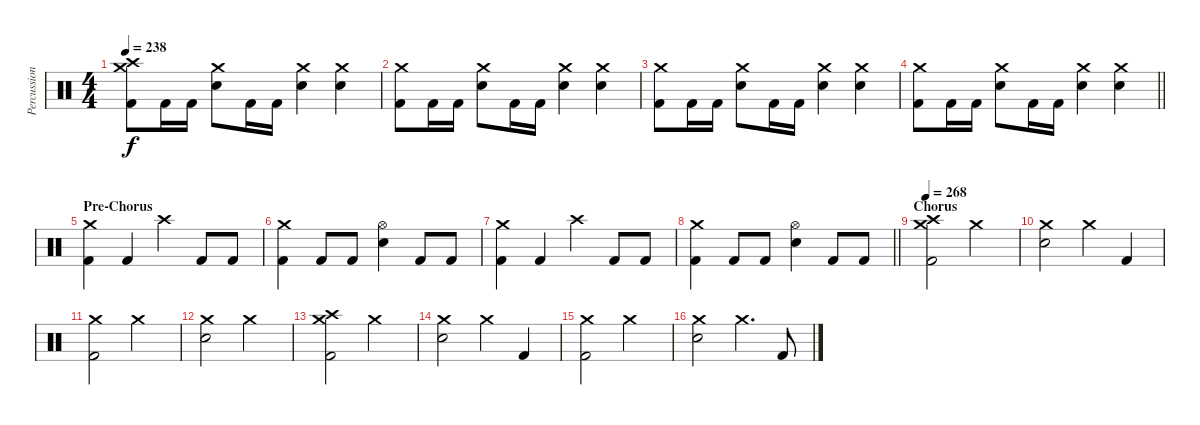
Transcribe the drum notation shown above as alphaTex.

\track ("Percussion" "Percussion") {instrument percussion}
\staff {score}
\articulation defaults
\ts (4 4)
\tempo 238
\clef neutral
\ks c
("Crash medium (hit)" "Crash high (hit)" "Kick (hit) 2").8{dy f} "Kick (hit) 2".16 "Kick (hit) 2".16 ("Crash medium (hit)" "Electric Snare (hit)").8 "Kick (hit) 2".16 "Kick (hit) 2".16 ("Crash medium (hit)" "Electric Snare (hit)").4 ("Crash medium (hit)" "Electric Snare (hit)").4 |
("Crash medium (hit)" "Kick (hit) 2").8 "Kick (hit) 2".16 "Kick (hit) 2".16 ("Crash medium (hit)" "Electric Snare (hit)").8 "Kick (hit) 2".16 "Kick (hit) 2".16 ("Crash medium (hit)" "Electric Snare (hit)").4 ("Crash medium (hit)" "Electric Snare (hit)").4 |
("Crash medium (hit)" "Kick (hit) 2").8 "Kick (hit) 2".16 "Kick (hit) 2".16 ("Crash medium (hit)" "Electric Snare (hit)").8 "Kick (hit) 2".16 "Kick (hit) 2".16 ("Crash medium (hit)" "Electric Snare (hit)").4 ("Crash medium (hit)" "Electric Snare (hit)").4 |
\barLineRight lightlight
("Crash medium (hit)" "Kick (hit) 2").8 "Kick (hit) 2".16 "Kick (hit) 2".16 ("Crash medium (hit)" "Electric Snare (hit)").8 "Kick (hit) 2".16 "Kick (hit) 2".16 ("Crash medium (hit)" "Electric Snare (hit)").4 ("Crash medium (hit)" "Electric Snare (hit)").4 |
\section ("" "Pre-Chorus")
("Crash medium (hit)" "Kick (hit) 2").4 "Kick (hit) 2".4 "Crash high (hit)".4 "Kick (hit) 2".8 "Kick (hit) 2".8 |
("Crash medium (hit)" "Kick (hit) 2").4 "Kick (hit) 2".8 "Kick (hit) 2".8 ("Hi-Hat (open)" "Electric Snare (hit)").4 "Kick (hit) 2".8 "Kick (hit) 2".8 |
("Crash medium (hit)" "Kick (hit) 2").4 "Kick (hit) 2".4 "Crash high (hit)".4 "Kick (hit) 2".8 "Kick (hit) 2".8 |
\barLineRight lightlight
("Crash medium (hit)" "Kick (hit) 2").4 "Kick (hit) 2".8 "Kick (hit) 2".8 ("Hi-Hat (open)" "Electric Snare (hit)").4 "Kick (hit) 2".8 "Kick (hit) 2".8 |
\section ("" "Chorus")
\tempo 268
("Crash medium (hit)" "Crash high (hit)" "Kick (hit) 2").2 "Crash medium (hit)".2 |
("Crash medium (hit)" "Electric Snare (hit)").2 "Crash medium (hit)".4 "Kick (hit) 2".4 |
("Crash medium (hit)" "Kick (hit) 2").2 "Crash medium (hit)".2 |
("Crash medium (hit)" "Electric Snare (hit)").2 "Crash medium (hit)".2 |
("Crash medium (hit)" "Crash high (hit)" "Kick (hit) 2").2 "Crash medium (hit)".2 |
("Crash medium (hit)" "Electric Snare (hit)").2 "Crash medium (hit)".4 "Kick (hit) 2".4 |
("Crash medium (hit)" "Kick (hit) 2").2 "Crash medium (hit)".2 |
("Crash medium (hit)" "Electric Snare (hit)").2 "Crash medium (hit)".4{d} "Kick (hit) 2".8
